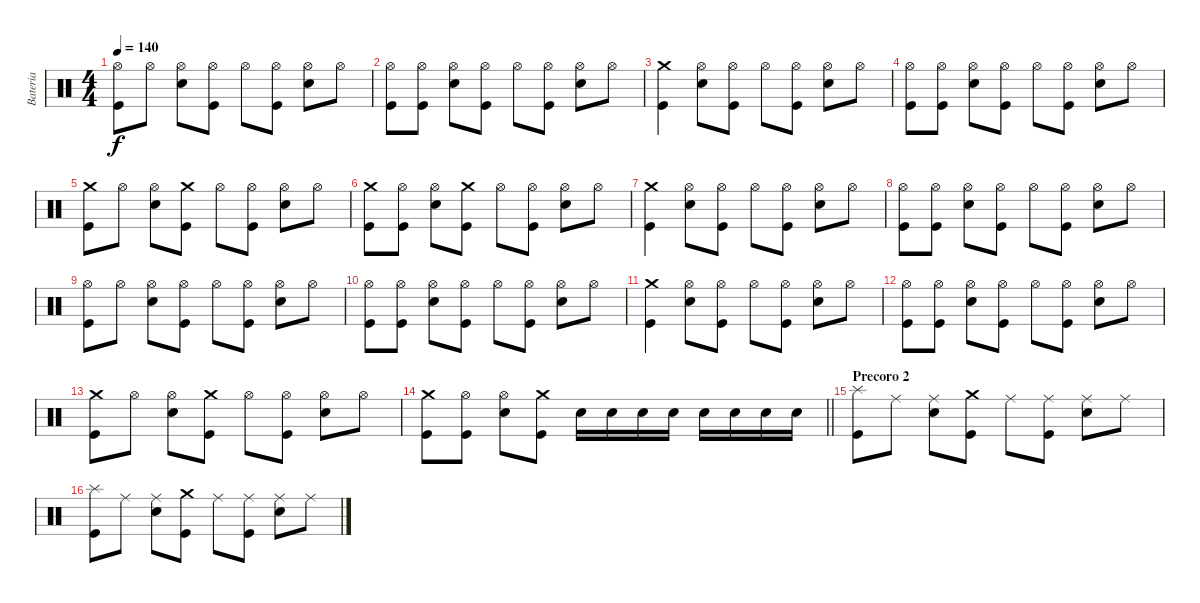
\track ("Bateria" "Bateria") {instrument percussion}
\staff {score}
\articulation defaults
\ts (4 4)
\tempo 140
\clef neutral
\ks c
("Kick (hit)" "Hi-Hat (open)").8{dy f} "Hi-Hat (open)".8 ("Snare (hit) 2" "Hi-Hat (open)").8 ("Kick (hit)" "Hi-Hat (open)").8 "Hi-Hat (open)".8 ("Kick (hit)" "Hi-Hat (open)").8 ("Snare (hit) 2" "Hi-Hat (open)").8 "Hi-Hat (open)".8 |
("Kick (hit)" "Hi-Hat (open)").8 ("Kick (hit)" "Hi-Hat (open)").8 ("Snare (hit) 2" "Hi-Hat (open)").8 ("Kick (hit)" "Hi-Hat (open)").8 "Hi-Hat (open)".8 ("Kick (hit)" "Hi-Hat (open)").8 ("Snare (hit) 2" "Hi-Hat (open)").8 "Hi-Hat (open)".8 |
("Kick (hit)" "Crash medium (hit)").4 ("Snare (hit) 2" "Hi-Hat (open)").8 ("Kick (hit)" "Hi-Hat (open)").8 "Hi-Hat (open)".8 ("Kick (hit)" "Hi-Hat (open)").8 ("Snare (hit) 2" "Hi-Hat (open)").8 "Hi-Hat (open)".8 |
("Kick (hit)" "Hi-Hat (open)").8 ("Kick (hit)" "Hi-Hat (open)").8 ("Snare (hit) 2" "Hi-Hat (open)").8 ("Kick (hit)" "Hi-Hat (open)").8 "Hi-Hat (open)".8 ("Kick (hit)" "Hi-Hat (open)").8 ("Snare (hit) 2" "Hi-Hat (open)").8 "Hi-Hat (open)".8 |
("Kick (hit)" "Crash medium (hit)").8 "Hi-Hat (open)".8 ("Snare (hit) 2" "Hi-Hat (open)").8 ("Kick (hit)" "Crash medium (hit)").8 "Hi-Hat (open)".8 ("Kick (hit)" "Hi-Hat (open)").8 ("Snare (hit) 2" "Hi-Hat (open)").8 "Hi-Hat (open)".8 |
("Kick (hit)" "Crash medium (hit)").8 ("Kick (hit)" "Hi-Hat (open)").8 ("Snare (hit) 2" "Hi-Hat (open)").8 ("Kick (hit)" "Crash medium (hit)").8 "Hi-Hat (open)".8 ("Kick (hit)" "Hi-Hat (open)").8 ("Snare (hit) 2" "Hi-Hat (open)").8 "Hi-Hat (open)".8 |
("Kick (hit)" "Crash medium (hit)").4 ("Snare (hit) 2" "Hi-Hat (open)").8 ("Kick (hit)" "Hi-Hat (open)").8 "Hi-Hat (open)".8 ("Kick (hit)" "Hi-Hat (open)").8 ("Snare (hit) 2" "Hi-Hat (open)").8 "Hi-Hat (open)".8 |
("Kick (hit)" "Hi-Hat (open)").8 ("Kick (hit)" "Hi-Hat (open)").8 ("Snare (hit) 2" "Hi-Hat (open)").8 ("Kick (hit)" "Hi-Hat (open)").8 "Hi-Hat (open)".8 ("Kick (hit)" "Hi-Hat (open)").8 ("Snare (hit) 2" "Hi-Hat (open)").8 "Hi-Hat (open)".8 |
("Kick (hit)" "Hi-Hat (open)").8 "Hi-Hat (open)".8 ("Snare (hit) 2" "Hi-Hat (open)").8 ("Kick (hit)" "Hi-Hat (open)").8 "Hi-Hat (open)".8 ("Kick (hit)" "Hi-Hat (open)").8 ("Snare (hit) 2" "Hi-Hat (open)").8 "Hi-Hat (open)".8 |
("Kick (hit)" "Hi-Hat (open)").8 ("Kick (hit)" "Hi-Hat (open)").8 ("Snare (hit) 2" "Hi-Hat (open)").8 ("Kick (hit)" "Hi-Hat (open)").8 "Hi-Hat (open)".8 ("Kick (hit)" "Hi-Hat (open)").8 ("Snare (hit) 2" "Hi-Hat (open)").8 "Hi-Hat (open)".8 |
("Kick (hit)" "Crash medium (hit)").4 ("Snare (hit) 2" "Hi-Hat (open)").8 ("Kick (hit)" "Hi-Hat (open)").8 "Hi-Hat (open)".8 ("Kick (hit)" "Hi-Hat (open)").8 ("Snare (hit) 2" "Hi-Hat (open)").8 "Hi-Hat (open)".8 |
("Kick (hit)" "Hi-Hat (open)").8 ("Kick (hit)" "Hi-Hat (open)").8 ("Snare (hit) 2" "Hi-Hat (open)").8 ("Kick (hit)" "Hi-Hat (open)").8 "Hi-Hat (open)".8 ("Kick (hit)" "Hi-Hat (open)").8 ("Snare (hit) 2" "Hi-Hat (open)").8 "Hi-Hat (open)".8 |
("Kick (hit)" "Crash medium (hit)").8 "Hi-Hat (open)".8 ("Snare (hit) 2" "Hi-Hat (open)").8 ("Kick (hit)" "Crash medium (hit)").8 "Hi-Hat (open)".8 ("Kick (hit)" "Hi-Hat (open)").8 ("Snare (hit) 2" "Hi-Hat (open)").8 "Hi-Hat (open)".8 |
\barLineRight lightlight
("Kick (hit)" "Crash medium (hit)").8 ("Kick (hit)" "Hi-Hat (open)").8 ("Snare (hit) 2" "Hi-Hat (open)").8 ("Kick (hit)" "Crash medium (hit)").8 "Snare (hit) 2".16 "Snare (hit) 2".16 "Snare (hit) 2".16 "Snare (hit) 2".16 "Snare (hit) 2".16 "Snare (hit) 2".16 "Snare (hit) 2".16 "Snare (hit) 2".16 |
\section ("" "Precoro 2")
("Kick (hit)" "Splash (hit)").8 "Ride (middle)".8 ("Snare (hit) 2" "Ride (middle)").8 ("Kick (hit)" "Crash medium (hit)").8 "Ride (middle)".8 ("Kick (hit)" "Ride (middle)").8 ("Snare (hit) 2" "Ride (middle)").8 "Ride (middle)".8 |
("Kick (hit)" "Splash (hit)").8 "Ride (middle)".8 ("Snare (hit) 2" "Ride (middle)").8 ("Kick (hit)" "Crash medium (hit)").8 "Ride (middle)".8 ("Kick (hit)" "Ride (middle)").8 ("Snare (hit) 2" "Ride (middle)").8 "Ride (middle)".8
